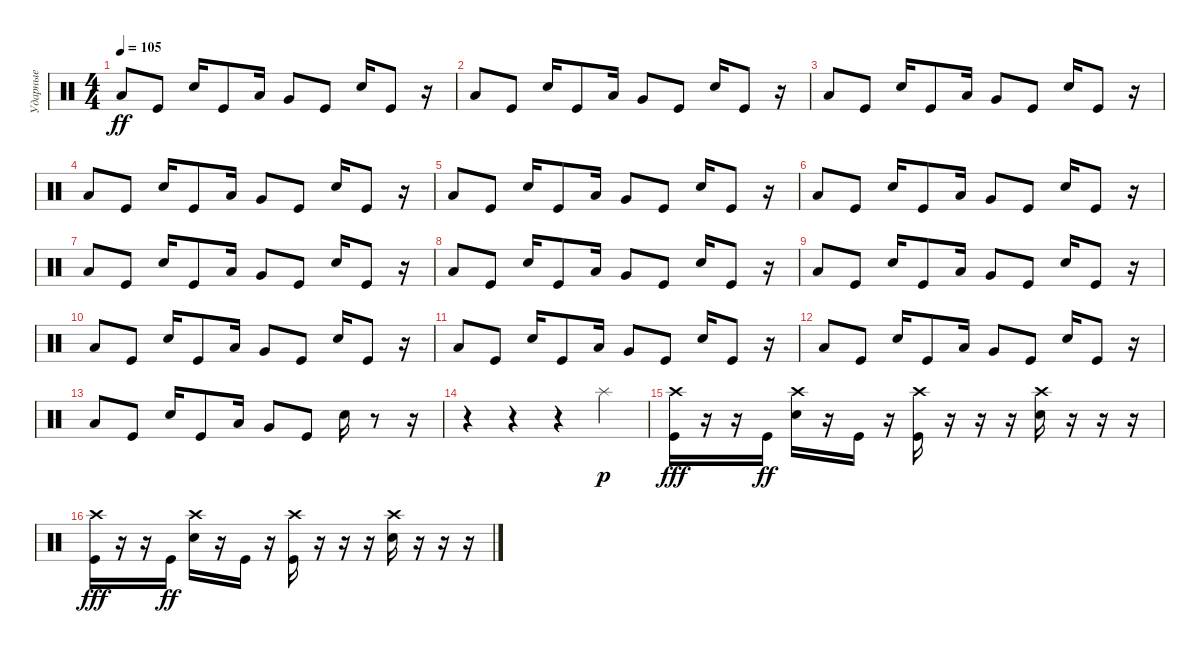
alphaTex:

\track ("Ударные" "Ударные") {instrument percussion}
\staff {score}
\articulation defaults
\ts (4 4)
\tempo 105
\clef neutral
\ks c "Low Tom (hit)".8{dy ff} "Kick (hit)".8 "Electric Snare (hit)".16 "Kick (hit)".8 "Low Tom (hit)".16 "Very Low Tom (hit)".8 "Kick (hit)".8 "Electric Snare (hit)".16 "Kick (hit)".8
r.16 |
"Low Tom (hit)".8 "Kick (hit)".8 "Electric Snare (hit)".16 "Kick (hit)".8 "Low Tom (hit)".16 "Very Low Tom (hit)".8 "Kick (hit)".8 "Electric Snare (hit)".16 "Kick (hit)".8 r.16 |
"Low Tom (hit)".8 "Kick (hit)".8 "Electric Snare (hit)".16 "Kick (hit)".8 "Low Tom (hit)".16 "Very Low Tom (hit)".8 "Kick (hit)".8 "Electric Snare (hit)".16 "Kick (hit)".8 r.16 |
"Low Tom (hit)".8 "Kick (hit)".8 "Electric Snare (hit)".16 "Kick (hit)".8 "Low Tom (hit)".16 "Very Low Tom (hit)".8 "Kick (hit)".8 "Electric Snare (hit)".16 "Kick (hit)".8 r.16 |
"Low Tom (hit)".8 "Kick (hit)".8 "Electric Snare (hit)".16 "Kick (hit)".8 "Low Tom (hit)".16 "Very Low Tom (hit)".8 "Kick (hit)".8 "Electric Snare (hit)".16 "Kick (hit)".8 r.16 |
"Low Tom (hit)".8 "Kick (hit)".8 "Electric Snare (hit)".16 "Kick (hit)".8 "Low Tom (hit)".16 "Very Low Tom (hit)".8 "Kick (hit)".8 "Electric Snare (hit)".16 "Kick (hit)".8 r.16 |
"Low Tom (hit)".8 "Kick (hit)".8 "Electric Snare (hit)".16 "Kick (hit)".8 "Low Tom (hit)".16 "Very Low Tom (hit)".8 "Kick (hit)".8 "Electric Snare (hit)".16 "Kick (hit)".8 r.16 |
"Low Tom (hit)".8 "Kick (hit)".8 "Electric Snare (hit)".16 "Kick (hit)".8 "Low Tom (hit)".16 "Very Low Tom (hit)".8 "Kick (hit)".8 "Electric Snare (hit)".16 "Kick (hit)".8 r.16 |
"Low Tom (hit)".8 "Kick (hit)".8 "Electric Snare (hit)".16 "Kick (hit)".8 "Low Tom (hit)".16 "Very Low Tom (hit)".8 "Kick (hit)".8 "Electric Snare (hit)".16 "Kick (hit)".8 r.16 |
"Low Tom (hit)".8 "Kick (hit)".8 "Electric Snare (hit)".16 "Kick (hit)".8 "Low Tom (hit)".16 "Very Low Tom (hit)".8 "Kick (hit)".8 "Electric Snare (hit)".16 "Kick (hit)".8 r.16 |
"Low Tom (hit)".8 "Kick (hit)".8 "Electric Snare (hit)".16 "Kick (hit)".8 "Low Tom (hit)".16 "Very Low Tom (hit)".8 "Kick (hit)".8 "Electric Snare (hit)".16 "Kick (hit)".8 r.16 |
"Low Tom (hit)".8 "Kick (hit)".8 "Electric Snare (hit)".16 "Kick (hit)".8 "Low Tom (hit)".16 "Very Low Tom (hit)".8 "Kick (hit)".8 "Electric Snare (hit)".16 "Kick (hit)".8 r.16 |
"Low Tom (hit)".8 "Kick (hit)".8 "Electric Snare (hit)".16 "Kick (hit)".8 "Low Tom (hit)".16 "Very Low Tom (hit)".8 "Kick (hit)".8 "Electric Snare (hit)".16 r.8 r.16 |
r.4 r.4 r.4 "Splash (hit)".4{dy p} |
("Crash high (hit)" "Kick (hit)").16{dy fff} r.16 r.16 "Kick (hit)".16{dy ff} ("Crash high (hit)" "Electric Snare (hit)").16 r.16 "Kick (hit)".16 r.16 ("Crash high (hit)" "Kick (hit)").16 r.16 r.16 r.16 ("Crash high (hit)" "Electric Snare (hit)").16 r.16 r.16 r.16 |
("Crash high (hit)" "Kick (hit)").16{dy fff} r.16 r.16 "Kick (hit)".16{dy ff} ("Crash high (hit)" "Electric Snare (hit)").16 r.16 "Kick (hit)".16 r.16 ("Crash high (hit)" "Kick (hit)").16 r.16 r.16 r.16 ("Crash high (hit)" "Electric Snare (hit)").16 r.16 r.16 r.16
